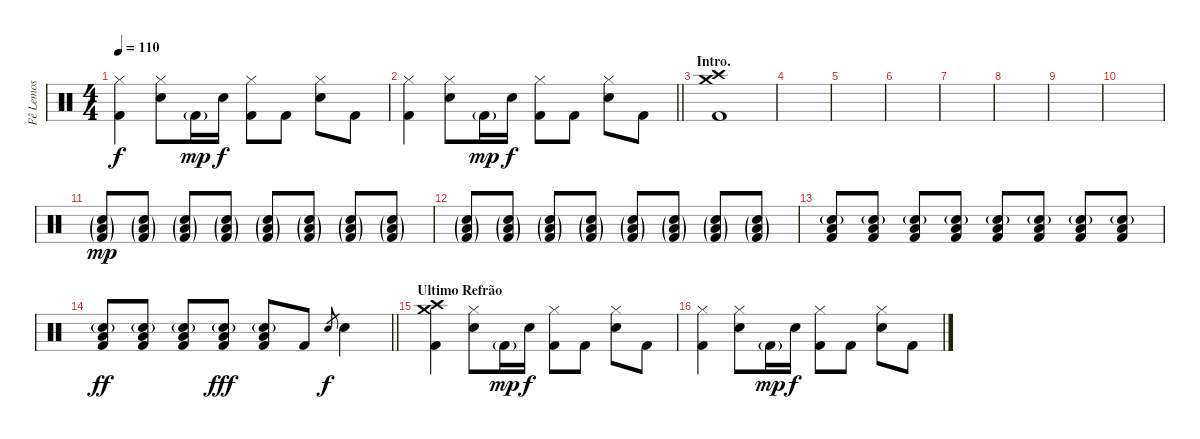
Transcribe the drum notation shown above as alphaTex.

\track ("Fê Lemos" "Fê Lemos") {instrument percussion}
\staff {score}
\articulation defaults
\ts (4 4)
\tempo 110
\clef neutral
\ks c
("Hi-Hat (closed)" "Kick (hit) 2").4{dy f} ("Hi-Hat (closed)" "Electric Snare (hit)").8 "Kick (hit) 2"{g}.16{dy mp} "Electric Snare (hit)".16{dy f} ("Hi-Hat (closed)" "Kick (hit) 2").8 "Kick (hit) 2".8 ("Hi-Hat (closed)" "Electric Snare (hit)").8 "Kick (hit) 2".8 |
\barLineRight lightlight
("Hi-Hat (closed)" "Kick (hit) 2").4 ("Hi-Hat (closed)" "Electric Snare (hit)").8 "Kick (hit) 2"{g}.16{dy mp} "Electric Snare (hit)".16{dy f} ("Hi-Hat (closed)" "Kick (hit) 2").8 "Kick (hit) 2".8 ("Hi-Hat (closed)" "Electric Snare (hit)").8 "Kick (hit) 2".8 |
\section ("" "Intro.")
("Crash high (hit)" "Crash medium (hit)" "Kick (hit) 2").1 |
|
|
|
|
|
|
|
("Electric Snare (hit)"{g} "Low Tom (hit)"{g} "Kick (hit) 2"{g}).8{dy mp} ("Electric Snare (hit)"{g} "Low Tom (hit)"{g} "Kick (hit) 2"{g}).8 ("Electric Snare (hit)"{g} "Low Tom (hit)"{g} "Kick (hit) 2"{g}).8 ("Electric Snare (hit)"{g} "Low Tom (hit)"{g} "Kick (hit) 2"{g}).8 ("Electric Snare (hit)"{g} "Low Tom (hit)"{g} "Kick (hit) 2"{g}).8 ("Electric Snare (hit)"{g} "Low Tom (hit)"{g} "Kick (hit) 2"{g}).8 ("Electric Snare (hit)"{g} "Low Tom (hit)"{g} "Kick (hit) 2"{g}).8 ("Electric Snare (hit)"{g} "Low Tom (hit)"{g} "Kick (hit) 2"{g}).8 |
("Electric Snare (hit)"{g} "Low Tom (hit)"{g} "Kick (hit) 2"{g}).8 ("Electric Snare (hit)"{g} "Low Tom (hit)"{g} "Kick (hit) 2"{g}).8 ("Electric Snare (hit)"{g} "Low Tom (hit)"{g} "Kick (hit) 2"{g}).8 ("Electric Snare (hit)"{g} "Low Tom (hit)"{g} "Kick (hit) 2"{g}).8 ("Electric Snare (hit)"{g} "Low Tom (hit)"{g} "Kick (hit) 2"{g}).8 ("Electric Snare (hit)"{g} "Low Tom (hit)"{g} "Kick (hit) 2"{g}).8 ("Electric Snare (hit)"{g} "Low Tom (hit)"{g} "Kick (hit) 2"{g}).8 ("Electric Snare (hit)"{g} "Low Tom (hit)"{g} "Kick (hit) 2"{g}).8 |
("Electric Snare (hit)"{g} "Low Tom (hit)" "Kick (hit) 2").8 ("Electric Snare (hit)"{g} "Low Tom (hit)" "Kick (hit) 2").8 ("Electric Snare (hit)"{g} "Low Tom (hit)" "Kick (hit) 2").8 ("Electric Snare (hit)"{g} "Low Tom (hit)" "Kick (hit) 2").8 ("Electric Snare (hit)"{g} "Low Tom (hit)" "Kick (hit) 2").8 ("Electric Snare (hit)"{g} "Low Tom (hit)" "Kick (hit) 2").8 ("Electric Snare (hit)"{g} "Low Tom (hit)" "Kick (hit) 2").8 ("Electric Snare (hit)"{g} "Low Tom (hit)" "Kick (hit) 2").8 |
\barLineRight lightlight
("Electric Snare (hit)"{g} "Low Tom (hit)" "Kick (hit) 2").8{dy ff} ("Electric Snare (hit)"{g} "Low Tom (hit)" "Kick (hit) 2").8 ("Electric Snare (hit)"{g} "Low Tom (hit)" "Kick (hit) 2").8 ("Electric Snare (hit)"{g} "Low Tom (hit)" "Kick (hit) 2").8{dy fff} ("Electric Snare (hit)"{g} "Low Tom (hit)" "Kick (hit) 2").8 "Kick (hit) 2".8 "Electric Snare (hit)".8{gr dy f} "Electric Snare (hit)".4 |
\section ("" "Ultimo Refrão")
("Crash medium (hit)" "Crash high (hit)" "Kick (hit) 2").4 ("Hi-Hat (closed)" "Electric Snare (hit)").8 "Kick (hit) 2"{g}.16{dy mp} "Electric Snare (hit)".16{dy f} ("Hi-Hat (closed)" "Kick (hit) 2").8 "Kick (hit) 2".8 ("Hi-Hat (closed)" "Electric Snare (hit)").8 "Kick (hit) 2".8 |
("Hi-Hat (closed)" "Kick (hit) 2").4 ("Hi-Hat (closed)" "Electric Snare (hit)").8 "Kick (hit) 2"{g}.16{dy mp} "Electric Snare (hit)".16{dy f} ("Hi-Hat (closed)" "Kick (hit) 2").8 "Kick (hit) 2".8 ("Hi-Hat (closed)" "Electric Snare (hit)").8 "Kick (hit) 2".8
